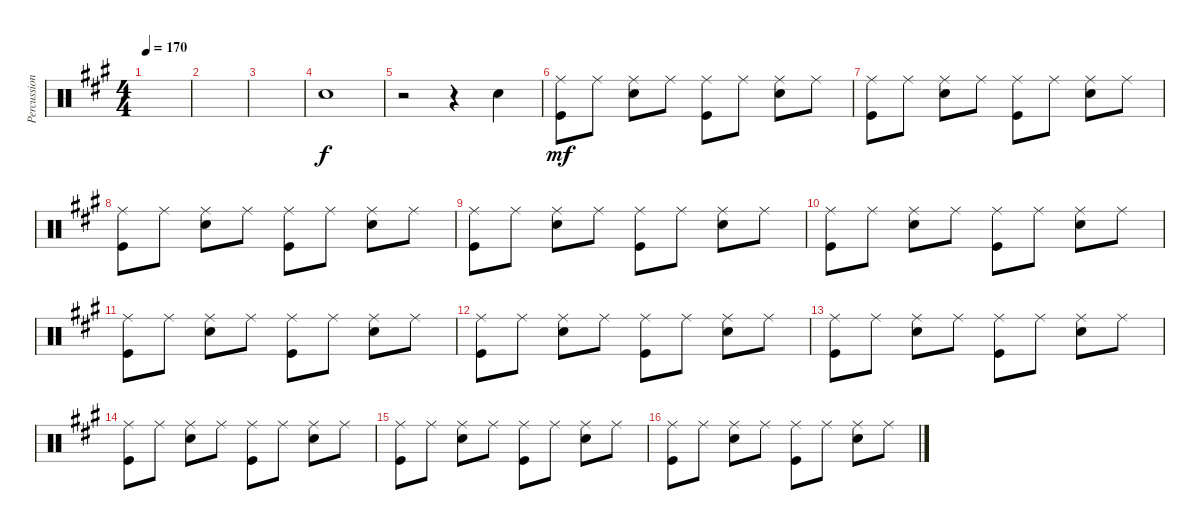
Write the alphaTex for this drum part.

\track ("Percussion" "Percussion") {instrument percussion}
\staff {score}
\articulation defaults
\ts (4 4)
\tempo 170
\clef neutral
\ks a
|
|
|
"Snare (hit) 2".1 |
r.2 r.4 "Snare (hit) 2".4 |
("Ride (middle)" "Kick (hit)").8{dy mf} "Ride (middle)".8 ("Ride (middle)" "Snare (hit) 2").8 "Ride (middle)".8 ("Ride (middle)" "Kick (hit)").8 "Ride (middle)".8 ("Ride (middle)" "Snare (hit) 2").8 "Ride (middle)".8 |
("Ride (middle)" "Kick (hit)").8 "Ride (middle)".8 ("Ride (middle)" "Snare (hit) 2").8 "Ride (middle)".8 ("Ride (middle)" "Kick (hit)").8 "Ride (middle)".8 ("Ride (middle)" "Snare (hit) 2").8 "Ride (middle)".8 |
("Ride (middle)" "Kick (hit)").8 "Ride (middle)".8 ("Ride (middle)" "Snare (hit) 2").8 "Ride (middle)".8 ("Ride (middle)" "Kick (hit)").8 "Ride (middle)".8 ("Ride (middle)" "Snare (hit) 2").8 "Ride (middle)".8 |
("Ride (middle)" "Kick (hit)").8 "Ride (middle)".8 ("Ride (middle)" "Snare (hit) 2").8 "Ride (middle)".8 ("Ride (middle)" "Kick (hit)").8 "Ride (middle)".8 ("Ride (middle)" "Snare (hit) 2").8 "Ride (middle)".8 |
("Ride (middle)" "Kick (hit)").8 "Ride (middle)".8 ("Ride (middle)" "Snare (hit) 2").8 "Ride (middle)".8 ("Ride (middle)" "Kick (hit)").8 "Ride (middle)".8 ("Ride (middle)" "Snare (hit) 2").8 "Ride (middle)".8 |
("Ride (middle)" "Kick (hit)").8 "Ride (middle)".8 ("Ride (middle)" "Snare (hit) 2").8 "Ride (middle)".8 ("Ride (middle)" "Kick (hit)").8 "Ride (middle)".8 ("Ride (middle)" "Snare (hit) 2").8 "Ride (middle)".8 |
("Ride (middle)" "Kick (hit)").8 "Ride (middle)".8 ("Ride (middle)" "Snare (hit) 2").8 "Ride (middle)".8 ("Ride (middle)" "Kick (hit)").8 "Ride (middle)".8 ("Ride (middle)" "Snare (hit) 2").8 "Ride (middle)".8 |
("Ride (middle)" "Kick (hit)").8 "Ride (middle)".8 ("Ride (middle)" "Snare (hit) 2").8 "Ride (middle)".8 ("Ride (middle)" "Kick (hit)").8 "Ride (middle)".8 ("Ride (middle)" "Snare (hit) 2").8 "Ride (middle)".8 |
("Ride (middle)" "Kick (hit)").8 "Ride (middle)".8 ("Ride (middle)" "Snare (hit) 2").8 "Ride (middle)".8 ("Ride (middle)" "Kick (hit)").8 "Ride (middle)".8 ("Ride (middle)" "Snare (hit) 2").8 "Ride (middle)".8 |
("Ride (middle)" "Kick (hit)").8 "Ride (middle)".8 ("Ride (middle)" "Snare (hit) 2").8 "Ride (middle)".8 ("Ride (middle)" "Kick (hit)").8 "Ride (middle)".8 ("Ride (middle)" "Snare (hit) 2").8 "Ride (middle)".8 |
("Ride (middle)" "Kick (hit)").8 "Ride (middle)".8 ("Ride (middle)" "Snare (hit) 2").8 "Ride (middle)".8 ("Ride (middle)" "Kick (hit)").8 "Ride (middle)".8 ("Ride (middle)" "Snare (hit) 2").8 "Ride (middle)".8
